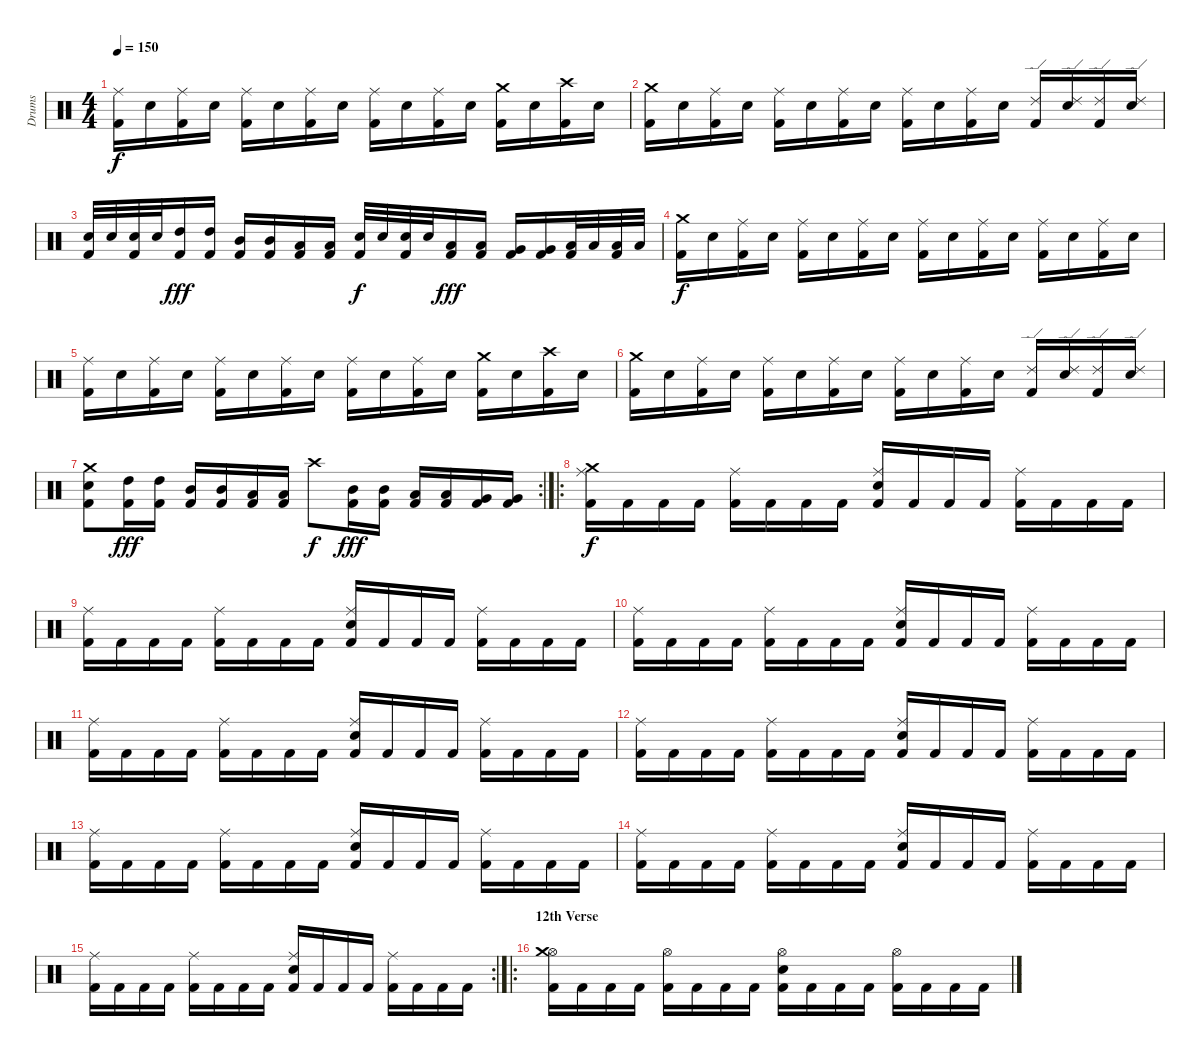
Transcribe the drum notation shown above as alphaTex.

\track ("Drums" "Drums") {instrument percussion}
\staff {score}
\articulation defaults
\ts (4 4)
\tempo 150
\clef neutral
\ks c
("Kick (hit) 2" "Ride (middle)").16{dy f} "Electric Snare (hit)".16 ("Kick (hit) 2" "Ride (middle)").16 "Electric Snare (hit)".16 ("Kick (hit) 2" "Ride (middle)").16 "Electric Snare (hit)".16 ("Kick (hit) 2" "Ride (middle)").16 "Electric Snare (hit)".16 ("Kick (hit) 2" "Ride (middle)").16 "Electric Snare (hit)".16 ("Kick (hit) 2" "Ride (middle)").16 "Electric Snare (hit)".16 ("Kick (hit) 2" "Crash medium (hit)").16 "Electric Snare (hit)".16 ("Kick (hit) 2" "Crash high (hit)").16 "Electric Snare (hit)".16 |
("Kick (hit) 2" "Crash medium (hit)").16 "Electric Snare (hit)".16 ("Kick (hit) 2" "Ride (middle)").16 "Electric Snare (hit)".16 ("Kick (hit) 2" "Ride (middle)").16 "Electric Snare (hit)".16 ("Kick (hit) 2" "Ride (middle)").16 "Electric Snare (hit)".16 ("Kick (hit) 2" "Ride (middle)").16 "Electric Snare (hit)".16 ("Kick (hit) 2" "Ride (middle)").16 "Electric Snare (hit)".16 ("Kick (hit) 2" "Ride (edge) 2").16 ("Electric Snare (hit)" "Ride (edge) 2").16 ("Kick (hit) 2" "Ride (edge) 2").16 ("Electric Snare (hit)" "Ride (edge) 2").16 |
("Kick (hit) 2" "Electric Snare (hit)").32 "Electric Snare (hit)".32 ("Kick (hit) 2" "Electric Snare (hit)").32 "Electric Snare (hit)".32 ("Kick (hit) 2" "High Tom (hit)").16{dy fff} ("Kick (hit) 2" "High Tom (hit)").16 ("Kick (hit) 2" "Mid Tom (hit)").16 ("Kick (hit) 2" "Mid Tom (hit)").16 ("Kick (hit) 2" "Low Tom (hit)").16 ("Kick (hit) 2" "Low Tom (hit)").16 ("Kick (hit) 2" "Electric Snare (hit)").32{dy f} "Electric Snare (hit)".32 ("Kick (hit) 2" "Electric Snare (hit)").32 "Electric Snare (hit)".32 ("Kick (hit) 2" "Low Tom (hit)").16{dy fff} ("Kick (hit) 2" "Low Tom (hit)").16 ("Kick (hit) 2" "Very Low Tom (hit)").16 ("Kick (hit) 2" "Very Low Tom (hit)").16 ("Kick (hit) 2" "Low Floor Tom (hit)").32 "Low Floor Tom (hit)".32 ("Kick (hit) 2" "Low Floor Tom (hit)").32 "Low Floor Tom (hit)".32 |
("Kick (hit) 2" "Crash medium (hit)").16{dy f} "Electric Snare (hit)".16 ("Kick (hit) 2" "Ride (middle)").16 "Electric Snare (hit)".16 ("Kick (hit) 2" "Ride (middle)").16 "Electric Snare (hit)".16 ("Kick (hit) 2" "Ride (middle)").16 "Electric Snare (hit)".16 ("Kick (hit) 2" "Ride (middle)").16 "Electric Snare (hit)".16 ("Kick (hit) 2" "Ride (middle)").16 "Electric Snare (hit)".16 ("Kick (hit) 2" "Ride (middle)").16 "Electric Snare (hit)".16 ("Kick (hit) 2" "Ride (middle)").16 "Electric Snare (hit)".16 |
("Kick (hit) 2" "Ride (middle)").16 "Electric Snare (hit)".16 ("Kick (hit) 2" "Ride (middle)").16 "Electric Snare (hit)".16 ("Kick (hit) 2" "Ride (middle)").16 "Electric Snare (hit)".16 ("Kick (hit) 2" "Ride (middle)").16 "Electric Snare (hit)".16 ("Kick (hit) 2" "Ride (middle)").16 "Electric Snare (hit)".16 ("Kick (hit) 2" "Ride (middle)").16 "Electric Snare (hit)".16 ("Kick (hit) 2" "Crash medium (hit)").16 "Electric Snare (hit)".16 ("Kick (hit) 2" "Crash high (hit)").16 "Electric Snare (hit)".16 |
("Kick (hit) 2" "Crash medium (hit)").16 "Electric Snare (hit)".16 ("Kick (hit) 2" "Ride (middle)").16 "Electric Snare (hit)".16 ("Kick (hit) 2" "Ride (middle)").16 "Electric Snare (hit)".16 ("Kick (hit) 2" "Ride (middle)").16 "Electric Snare (hit)".16 ("Kick (hit) 2" "Ride (middle)").16 "Electric Snare (hit)".16 ("Kick (hit) 2" "Ride (middle)").16 "Electric Snare (hit)".16 ("Kick (hit) 2" "Ride (edge) 2").16 ("Electric Snare (hit)" "Ride (edge) 2").16 ("Kick (hit) 2" "Ride (edge) 2").16 ("Electric Snare (hit)" "Ride (edge) 2").16 |
\rc 2
("Kick (hit) 2" "Electric Snare (hit)" "Crash medium (hit)").8 ("Kick (hit) 2" "High Tom (hit)").16{dy fff} ("Kick (hit) 2" "High Tom (hit)").16 ("Kick (hit) 2" "Mid Tom (hit)").16 ("Kick (hit) 2" "Mid Tom (hit)").16 ("Kick (hit) 2" "Low Tom (hit)").16 ("Kick (hit) 2" "Low Tom (hit)").16 "Crash high (hit)".8{dy f} ("Kick (hit) 2" "Mid Tom (hit)").16{dy fff} ("Kick (hit) 2" "Mid Tom (hit)").16 ("Kick (hit) 2" "Low Tom (hit)").16 ("Kick (hit) 2" "Low Tom (hit)").16 ("Kick (hit) 2" "Very Low Tom (hit)").16 ("Kick (hit) 2" "Very Low Tom (hit)").16 |
\ro
("Kick (hit) 2" "Ride (middle)" "Crash medium (hit)").16{dy f} "Kick (hit) 2".16 "Kick (hit) 2".16 "Kick (hit) 2".16 ("Kick (hit) 2" "Ride (middle)").16 "Kick (hit) 2".16 "Kick (hit) 2".16 "Kick (hit) 2".16 ("Kick (hit) 2" "Electric Snare (hit)" "Ride (middle)").16 "Kick (hit) 2".16 "Kick (hit) 2".16 "Kick (hit) 2".16 ("Kick (hit) 2" "Ride (middle)").16 "Kick (hit) 2".16 "Kick (hit) 2".16 "Kick (hit) 2".16 |
("Kick (hit) 2" "Ride (middle)").16 "Kick (hit) 2".16 "Kick (hit) 2".16 "Kick (hit) 2".16 ("Kick (hit) 2" "Ride (middle)").16 "Kick (hit) 2".16 "Kick (hit) 2".16 "Kick (hit) 2".16 ("Kick (hit) 2" "Electric Snare (hit)" "Ride (middle)").16 "Kick (hit) 2".16 "Kick (hit) 2".16 "Kick (hit) 2".16 ("Kick (hit) 2" "Ride (middle)").16 "Kick (hit) 2".16 "Kick (hit) 2".16 "Kick (hit) 2".16 |
("Kick (hit) 2" "Ride (middle)").16 "Kick (hit) 2".16 "Kick (hit) 2".16 "Kick (hit) 2".16 ("Kick (hit) 2" "Ride (middle)").16 "Kick (hit) 2".16 "Kick (hit) 2".16 "Kick (hit) 2".16 ("Kick (hit) 2" "Electric Snare (hit)" "Ride (middle)").16 "Kick (hit) 2".16 "Kick (hit) 2".16 "Kick (hit) 2".16 ("Kick (hit) 2" "Ride (middle)").16 "Kick (hit) 2".16 "Kick (hit) 2".16 "Kick (hit) 2".16 |
("Kick (hit) 2" "Ride (middle)").16 "Kick (hit) 2".16 "Kick (hit) 2".16 "Kick (hit) 2".16 ("Kick (hit) 2" "Ride (middle)").16 "Kick (hit) 2".16 "Kick (hit) 2".16 "Kick (hit) 2".16 ("Kick (hit) 2" "Electric Snare (hit)" "Ride (middle)").16 "Kick (hit) 2".16 "Kick (hit) 2".16 "Kick (hit) 2".16 ("Kick (hit) 2" "Ride (middle)").16 "Kick (hit) 2".16 "Kick (hit) 2".16 "Kick (hit) 2".16 |
("Kick (hit) 2" "Ride (middle)").16 "Kick (hit) 2".16 "Kick (hit) 2".16 "Kick (hit) 2".16 ("Kick (hit) 2" "Ride (middle)").16 "Kick (hit) 2".16 "Kick (hit) 2".16 "Kick (hit) 2".16 ("Kick (hit) 2" "Electric Snare (hit)" "Ride (middle)").16 "Kick (hit) 2".16 "Kick (hit) 2".16 "Kick (hit) 2".16 ("Kick (hit) 2" "Ride (middle)").16 "Kick (hit) 2".16 "Kick (hit) 2".16 "Kick (hit) 2".16 |
("Kick (hit) 2" "Ride (middle)").16 "Kick (hit) 2".16 "Kick (hit) 2".16 "Kick (hit) 2".16 ("Kick (hit) 2" "Ride (middle)").16 "Kick (hit) 2".16 "Kick (hit) 2".16 "Kick (hit) 2".16 ("Kick (hit) 2" "Electric Snare (hit)" "Ride (middle)").16 "Kick (hit) 2".16 "Kick (hit) 2".16 "Kick (hit) 2".16 ("Kick (hit) 2" "Ride (middle)").16 "Kick (hit) 2".16 "Kick (hit) 2".16 "Kick (hit) 2".16 |
("Kick (hit) 2" "Ride (middle)").16 "Kick (hit) 2".16 "Kick (hit) 2".16 "Kick (hit) 2".16 ("Kick (hit) 2" "Ride (middle)").16 "Kick (hit) 2".16 "Kick (hit) 2".16 "Kick (hit) 2".16 ("Kick (hit) 2" "Electric Snare (hit)" "Ride (middle)").16 "Kick (hit) 2".16 "Kick (hit) 2".16 "Kick (hit) 2".16 ("Kick (hit) 2" "Ride (middle)").16 "Kick (hit) 2".16 "Kick (hit) 2".16 "Kick (hit) 2".16 |
\rc 2
("Kick (hit) 2" "Ride (middle)").16 "Kick (hit) 2".16 "Kick (hit) 2".16 "Kick (hit) 2".16 ("Kick (hit) 2" "Ride (middle)").16 "Kick (hit) 2".16 "Kick (hit) 2".16 "Kick (hit) 2".16 ("Kick (hit) 2" "Electric Snare (hit)" "Ride (middle)").16 "Kick (hit) 2".16 "Kick (hit) 2".16 "Kick (hit) 2".16 ("Kick (hit) 2" "Ride (middle)").16 "Kick (hit) 2".16 "Kick (hit) 2".16 "Kick (hit) 2".16 |
\ro
\section ("" "12th Verse")
("Kick (hit) 2" "Hi-Hat (open)" "Crash medium (hit)").16 "Kick (hit) 2".16 "Kick (hit) 2".16 "Kick (hit) 2".16 ("Kick (hit) 2" "Hi-Hat (open)").16 "Kick (hit) 2".16 "Kick (hit) 2".16 "Kick (hit) 2".16 ("Kick (hit) 2" "Electric Snare (hit)" "Hi-Hat (open)").16 "Kick (hit) 2".16 "Kick (hit) 2".16 "Kick (hit) 2".16 ("Kick (hit) 2" "Hi-Hat (open)").16 "Kick (hit) 2".16 "Kick (hit) 2".16 "Kick (hit) 2".16
